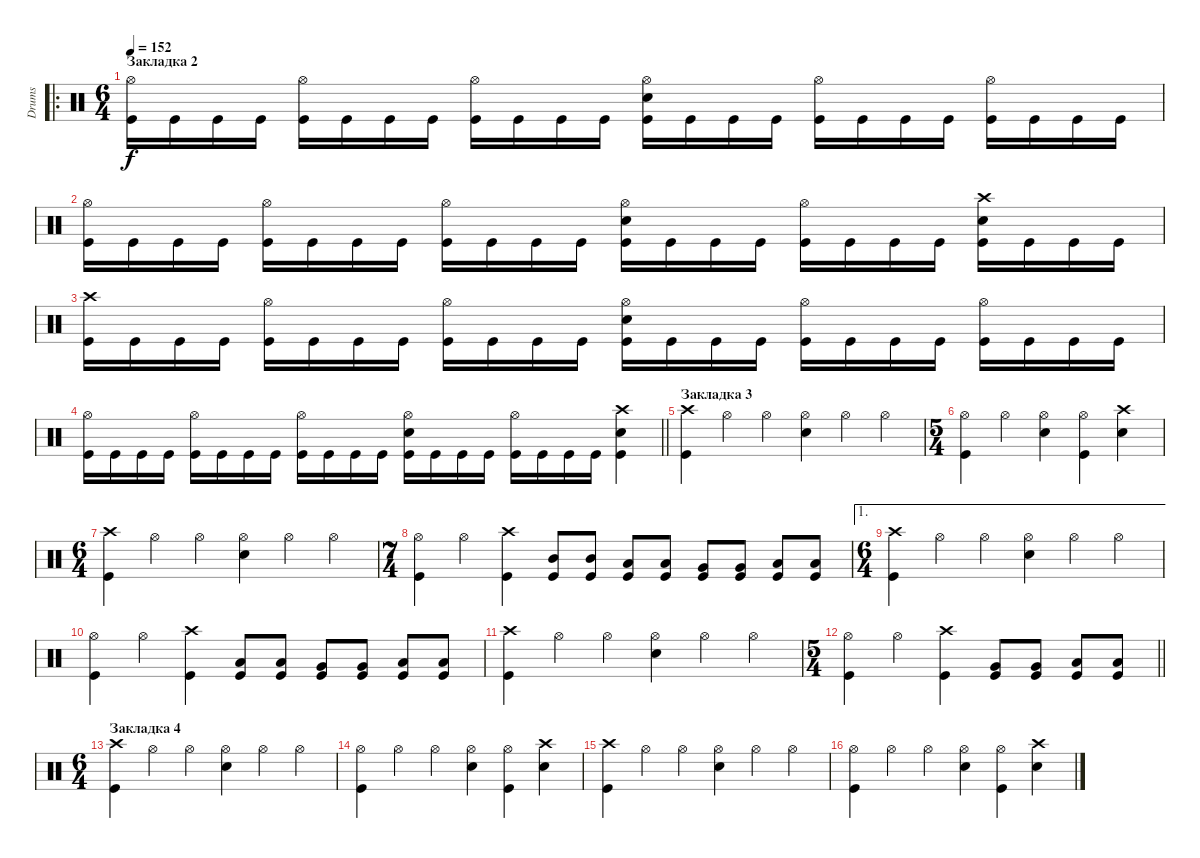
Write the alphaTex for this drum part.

\track ("Drums" "Drums") {instrument percussion}
\staff {score}
\articulation defaults
\ro
\ts (6 4)
\section ("" "Закладка 2")
\tempo 152
\clef neutral
\ks c
("Hi-Hat (open)" "Kick (hit)").16{dy f} "Kick (hit)".16 "Kick (hit)".16 "Kick (hit)".16 ("Hi-Hat (open)" "Kick (hit)").16 "Kick (hit)".16 "Kick (hit)".16 "Kick (hit)".16 ("Hi-Hat (open)" "Kick (hit)").16 "Kick (hit)".16 "Kick (hit)".16 "Kick (hit)".16 ("Snare (hit) 2" "Hi-Hat (open)" "Kick (hit)").16 "Kick (hit)".16 "Kick (hit)".16 "Kick (hit)".16 ("Hi-Hat (open)" "Kick (hit)").16 "Kick (hit)".16 "Kick (hit)".16 "Kick (hit)".16 ("Hi-Hat (open)" "Kick (hit)").16 "Kick (hit)".16 "Kick (hit)".16 "Kick (hit)".16 |
("Hi-Hat (open)" "Kick (hit)").16 "Kick (hit)".16 "Kick (hit)".16 "Kick (hit)".16 ("Hi-Hat (open)" "Kick (hit)").16 "Kick (hit)".16 "Kick (hit)".16 "Kick (hit)".16 ("Hi-Hat (open)" "Kick (hit)").16 "Kick (hit)".16 "Kick (hit)".16 "Kick (hit)".16 ("Snare (hit) 2" "Hi-Hat (open)" "Kick (hit)").16 "Kick (hit)".16 "Kick (hit)".16 "Kick (hit)".16 ("Hi-Hat (open)" "Kick (hit)").16 "Kick (hit)".16 "Kick (hit)".16 "Kick (hit)".16 ("Crash high (hit)" "Snare (hit) 2" "Kick (hit)").16 "Kick (hit)".16 "Kick (hit)".16 "Kick (hit)".16 |
("Crash high (hit)" "Kick (hit)").16 "Kick (hit)".16 "Kick (hit)".16 "Kick (hit)".16 ("Hi-Hat (open)" "Kick (hit)").16 "Kick (hit)".16 "Kick (hit)".16 "Kick (hit)".16 ("Hi-Hat (open)" "Kick (hit)").16 "Kick (hit)".16 "Kick (hit)".16 "Kick (hit)".16 ("Snare (hit) 2" "Hi-Hat (open)" "Kick (hit)").16 "Kick (hit)".16 "Kick (hit)".16 "Kick (hit)".16 ("Hi-Hat (open)" "Kick (hit)").16 "Kick (hit)".16 "Kick (hit)".16 "Kick (hit)".16 ("Hi-Hat (open)" "Kick (hit)").16 "Kick (hit)".16 "Kick (hit)".16 "Kick (hit)".16 |
\barLineRight lightlight
("Hi-Hat (open)" "Kick (hit)").16 "Kick (hit)".16 "Kick (hit)".16 "Kick (hit)".16 ("Hi-Hat (open)" "Kick (hit)").16 "Kick (hit)".16 "Kick (hit)".16 "Kick (hit)".16 ("Hi-Hat (open)" "Kick (hit)").16 "Kick (hit)".16 "Kick (hit)".16 "Kick (hit)".16 ("Snare (hit) 2" "Hi-Hat (open)" "Kick (hit)").16 "Kick (hit)".16 "Kick (hit)".16 "Kick (hit)".16 ("Hi-Hat (open)" "Kick (hit)").16 "Kick (hit)".16 "Kick (hit)".16 "Kick (hit)".16 ("Crash high (hit)" "Snare (hit) 2" "Kick (hit)").4 |
\section ("" "Закладка 3")
("Crash high (hit)" "Kick (hit)").4 "Hi-Hat (open)".4 "Hi-Hat (open)".4 ("Hi-Hat (open)" "Snare (hit) 2").4 "Hi-Hat (open)".4 "Hi-Hat (open)".4 |
\ts (5 4)
("Hi-Hat (open)" "Kick (hit)").4 "Hi-Hat (open)".4 ("Hi-Hat (open)" "Snare (hit) 2").4 ("Hi-Hat (open)" "Kick (hit)").4 ("Crash high (hit)" "Snare (hit) 2").4 |
\ts (6 4)
("Crash high (hit)" "Kick (hit)").4 "Hi-Hat (open)".4 "Hi-Hat (open)".4 ("Hi-Hat (open)" "Snare (hit) 2").4 "Hi-Hat (open)".4 "Hi-Hat (open)".4 |
\ts (7 4)
("Hi-Hat (open)" "Kick (hit)").4 "Hi-Hat (open)".4 ("Crash high (hit)" "Kick (hit)").4 ("Mid Tom (hit)" "Kick (hit)").8 ("Mid Tom (hit)" "Kick (hit)").8 ("Low Tom (hit)" "Kick (hit)").8 ("Low Tom (hit)" "Kick (hit)").8 ("Very Low Tom (hit)" "Kick (hit)").8 ("Very Low Tom (hit)" "Kick (hit)").8 ("Low Floor Tom (hit)" "Kick (hit)").8 ("Low Floor Tom (hit)" "Kick (hit)").8 |
\ae 1
\ts (6 4)
("Crash high (hit)" "Kick (hit)").4 "Hi-Hat (open)".4 "Hi-Hat (open)".4 ("Hi-Hat (open)" "Snare (hit) 2").4 "Hi-Hat (open)".4 "Hi-Hat (open)".4 |
("Hi-Hat (open)" "Kick (hit)").4 "Hi-Hat (open)".4 ("Crash high (hit)" "Kick (hit)").4 ("Low Tom (hit)" "Kick (hit)").8 ("Low Tom (hit)" "Kick (hit)").8 ("Very Low Tom (hit)" "Kick (hit)").8 ("Very Low Tom (hit)" "Kick (hit)").8 ("Low Floor Tom (hit)" "Kick (hit)").8 ("Low Floor Tom (hit)" "Kick (hit)").8 |
("Crash high (hit)" "Kick (hit)").4 "Hi-Hat (open)".4 "Hi-Hat (open)".4 ("Hi-Hat (open)" "Snare (hit) 2").4 "Hi-Hat (open)".4 "Hi-Hat (open)".4 |
\ts (5 4)
\barLineRight lightlight
("Hi-Hat (open)" "Kick (hit)").4 "Hi-Hat (open)".4 ("Crash high (hit)" "Kick (hit)").4 ("Very Low Tom (hit)" "Kick (hit)").8 ("Very Low Tom (hit)" "Kick (hit)").8 ("Low Floor Tom (hit)" "Kick (hit)").8 ("Low Floor Tom (hit)" "Kick (hit)").8 |
\ts (6 4)
\section ("" "Закладка 4")
("Crash high (hit)" "Kick (hit)").4 "Hi-Hat (open)".4 "Hi-Hat (open)".4 ("Hi-Hat (open)" "Snare (hit) 2").4 "Hi-Hat (open)".4 "Hi-Hat (open)".4 |
("Hi-Hat (open)" "Kick (hit)").4 "Hi-Hat (open)".4 "Hi-Hat (open)".4 ("Hi-Hat (open)" "Snare (hit) 2").4 ("Hi-Hat (open)" "Kick (hit)").4 ("Crash high (hit)" "Snare (hit) 2").4 |
("Crash high (hit)" "Kick (hit)").4 "Hi-Hat (open)".4 "Hi-Hat (open)".4 ("Hi-Hat (open)" "Snare (hit) 2").4 "Hi-Hat (open)".4 "Hi-Hat (open)".4 |
("Hi-Hat (open)" "Kick (hit)").4 "Hi-Hat (open)".4 "Hi-Hat (open)".4 ("Hi-Hat (open)" "Snare (hit) 2").4 ("Hi-Hat (open)" "Kick (hit)").4 ("Crash high (hit)" "Snare (hit) 2").4
